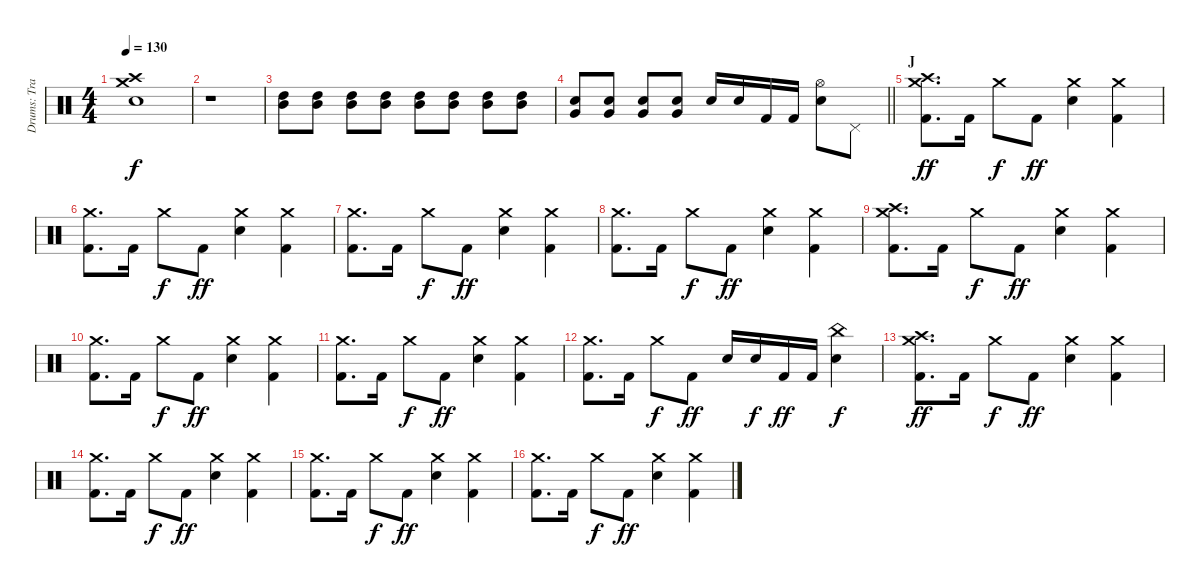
\track ("Drums: Travis Clarke" "Drums: Tra") {instrument percussion}
\staff {score}
\articulation defaults
\ts (4 4)
\tempo 130
\clef neutral
\ks c
("Snare (hit) 2" "Crash high (hit)" "Crash medium (hit)").1{dy f} |
r.1 |
("Mid Tom (hit)" "High Tom (hit)").8{volume 7} ("Mid Tom (hit)" "High Tom (hit)").8{volume 11} ("Mid Tom (hit)" "High Tom (hit)").8 ("Mid Tom (hit)" "High Tom (hit)").8 ("Mid Tom (hit)" "High Tom (hit)").8 ("Mid Tom (hit)" "High Tom (hit)").8 ("Mid Tom (hit)" "High Tom (hit)").8 ("Mid Tom (hit)" "High Tom (hit)").8 |
\barLineRight lightlight
("Snare (hit) 2" "Very Low Tom (hit)").8{volume 7} ("Snare (hit) 2" "Very Low Tom (hit)").8{volume 13} ("Snare (hit) 2" "Very Low Tom (hit)").8 ("Snare (hit) 2" "Very Low Tom (hit)").8 "Snare (hit) 2".16 "Snare (hit) 2".16 "Kick (hit) 2".16 "Kick (hit) 2".16 ("Snare (hit) 2" "Hi-Hat (open)").8 "Pedal Hi-Hat (hit)".8 |
\section ("" "J")
("Kick (hit) 2" "Crash high (hit)" "Crash medium (hit)").8{d dy ff} "Kick (hit) 2".16 "Crash medium (hit)".8{dy f} "Kick (hit) 2".8{dy ff} ("Snare (hit) 2" "Crash medium (hit)").4 ("Kick (hit) 2" "Crash medium (hit)").4 |
("Kick (hit) 2" "Crash medium (hit)").8{d} "Kick (hit) 2".16 "Crash medium (hit)".8{dy f} "Kick (hit) 2".8{dy ff} ("Snare (hit) 2" "Crash medium (hit)").4 ("Kick (hit) 2" "Crash medium (hit)").4 |
("Kick (hit) 2" "Crash medium (hit)").8{d} "Kick (hit) 2".16 "Crash medium (hit)".8{dy f} "Kick (hit) 2".8{dy ff} ("Snare (hit) 2" "Crash medium (hit)").4 ("Kick (hit) 2" "Crash medium (hit)").4 |
("Kick (hit) 2" "Crash medium (hit)").8{d} "Kick (hit) 2".16 "Crash medium (hit)".8{dy f} "Kick (hit) 2".8{dy ff} ("Snare (hit) 2" "Crash medium (hit)").4 ("Kick (hit) 2" "Crash medium (hit)").4 |
("Kick (hit) 2" "Crash high (hit)" "Crash medium (hit)").8{d} "Kick (hit) 2".16 "Crash medium (hit)".8{dy f} "Kick (hit) 2".8{dy ff} ("Snare (hit) 2" "Crash medium (hit)").4 ("Kick (hit) 2" "Crash medium (hit)").4 |
("Kick (hit) 2" "Crash medium (hit)").8{d} "Kick (hit) 2".16 "Crash medium (hit)".8{dy f} "Kick (hit) 2".8{dy ff} ("Snare (hit) 2" "Crash medium (hit)").4 ("Kick (hit) 2" "Crash medium (hit)").4 |
("Kick (hit) 2" "Crash medium (hit)").8{d} "Kick (hit) 2".16 "Crash medium (hit)".8{dy f} "Kick (hit) 2".8{dy ff} ("Snare (hit) 2" "Crash medium (hit)").4 ("Kick (hit) 2" "Crash medium (hit)").4 |
("Kick (hit) 2" "Crash medium (hit)").8{d} "Kick (hit) 2".16 "Crash medium (hit)".8{dy f} "Kick (hit) 2".8{dy ff} "Snare (hit) 2".16 "Snare (hit) 2".16{dy f} "Kick (hit) 2".16{dy ff} "Kick (hit) 2".16 ("Snare (hit) 2" "China (hit)").4{dy f} |
("Kick (hit) 2" "Crash high (hit)" "Crash medium (hit)").8{d dy ff} "Kick (hit) 2".16 "Crash medium (hit)".8{dy f} "Kick (hit) 2".8{dy ff} ("Snare (hit) 2" "Crash medium (hit)").4 ("Kick (hit) 2" "Crash medium (hit)").4 |
("Kick (hit) 2" "Crash medium (hit)").8{d} "Kick (hit) 2".16 "Crash medium (hit)".8{dy f} "Kick (hit) 2".8{dy ff} ("Snare (hit) 2" "Crash medium (hit)").4 ("Kick (hit) 2" "Crash medium (hit)").4 |
("Kick (hit) 2" "Crash medium (hit)").8{d} "Kick (hit) 2".16 "Crash medium (hit)".8{dy f} "Kick (hit) 2".8{dy ff} ("Snare (hit) 2" "Crash medium (hit)").4 ("Kick (hit) 2" "Crash medium (hit)").4 |
("Kick (hit) 2" "Crash medium (hit)").8{d} "Kick (hit) 2".16 "Crash medium (hit)".8{dy f} "Kick (hit) 2".8{dy ff} ("Snare (hit) 2" "Crash medium (hit)").4 ("Kick (hit) 2" "Crash medium (hit)").4
